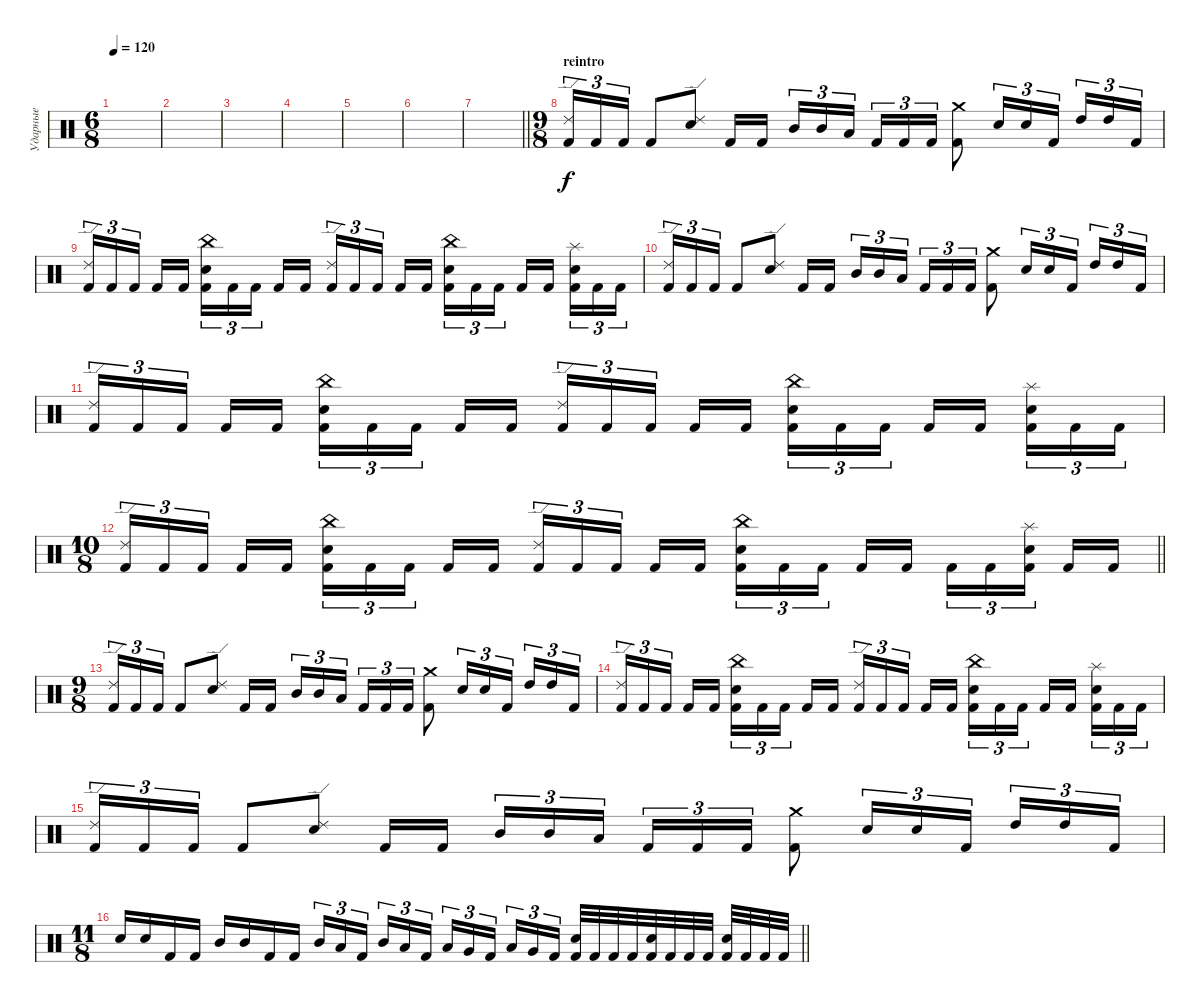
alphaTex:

\track ("Ударные" "Ударные") {instrument percussion}
\staff {score}
\articulation defaults
\ts (6 8)
\tempo 120
\clef neutral
\ks c
|
|
|
|
|
|
\barLineRight lightlight
|
\ts (9 8)
\section ("" "reintro")
("Ride (edge) 2" "Kick (hit) 2").16{tu (3 2)} "Kick (hit) 2".16{tu (3 2)} "Kick (hit) 2".16{tu (3 2)} "Kick (hit) 2".8 ("Ride (edge) 2" "Snare (hit) 2").8 "Kick (hit) 2".16 "Kick (hit) 2".16 "Mid Tom (hit)".16{tu (3 2)} "Mid Tom (hit)".16{tu (3 2)} "Low Tom (hit)".16{tu (3 2)} "Kick (hit) 2".16{tu (3 2)} "Kick (hit) 2".16{tu (3 2)} "Kick (hit) 2".16{tu (3 2)} ("Crash medium (hit)" "Kick (hit) 2").8 "Snare (hit) 2".16{tu (3 2)} "Snare (hit) 2".16{tu (3 2)} "Kick (hit) 2".16{tu (3 2)} "High Tom (hit)".16{tu (3 2)} "High Tom (hit)".16{tu (3 2)} "Kick (hit) 2".16{tu (3 2)} |
("Ride (edge) 2" "Kick (hit) 2").16{tu (3 2)} "Kick (hit) 2".16{tu (3 2)} "Kick (hit) 2".16{tu (3 2)} "Kick (hit) 2".16 "Kick (hit) 2".16 ("China (hit)" "Snare (hit) 2" "Kick (hit) 2").16{tu (3 2)} "Kick (hit) 2".16{tu (3 2)} "Kick (hit) 2".16{tu (3 2)} "Kick (hit) 2".16 "Kick (hit) 2".16 ("Ride (edge) 2" "Kick (hit) 2").16{tu (3 2)} "Kick (hit) 2".16{tu (3 2)} "Kick (hit) 2".16{tu (3 2)} "Kick (hit) 2".16 "Kick (hit) 2".16 ("China (hit)" "Snare (hit) 2" "Kick (hit) 2").16{tu (3 2)} "Kick (hit) 2".16{tu (3 2)} "Kick (hit) 2".16{tu (3 2)} "Kick (hit) 2".16 "Kick (hit) 2".16 ("Splash (hit)" "Snare (hit) 2" "Kick (hit) 2").16{tu (3 2)} "Kick (hit) 2".16{tu (3 2)} "Kick (hit) 2".16{tu (3 2)} |
("Ride (edge) 2" "Kick (hit) 2").16{tu (3 2)} "Kick (hit) 2".16{tu (3 2)} "Kick (hit) 2".16{tu (3 2)} "Kick (hit) 2".8 ("Ride (edge) 2" "Snare (hit) 2").8 "Kick (hit) 2".16 "Kick (hit) 2".16 "Mid Tom (hit)".16{tu (3 2)} "Mid Tom (hit)".16{tu (3 2)} "Low Tom (hit)".16{tu (3 2)} "Kick (hit) 2".16{tu (3 2)} "Kick (hit) 2".16{tu (3 2)} "Kick (hit) 2".16{tu (3 2)} ("Crash medium (hit)" "Kick (hit) 2").8 "Snare (hit) 2".16{tu (3 2)} "Snare (hit) 2".16{tu (3 2)} "Kick (hit) 2".16{tu (3 2)} "High Tom (hit)".16{tu (3 2)} "High Tom (hit)".16{tu (3 2)} "Kick (hit) 2".16{tu (3 2)} |
("Ride (edge) 2" "Kick (hit) 2").16{tu (3 2)} "Kick (hit) 2".16{tu (3 2)} "Kick (hit) 2".16{tu (3 2)} "Kick (hit) 2".16 "Kick (hit) 2".16 ("China (hit)" "Snare (hit) 2" "Kick (hit) 2").16{tu (3 2)} "Kick (hit) 2".16{tu (3 2)} "Kick (hit) 2".16{tu (3 2)} "Kick (hit) 2".16 "Kick (hit) 2".16 ("Ride (edge) 2" "Kick (hit) 2").16{tu (3 2)} "Kick (hit) 2".16{tu (3 2)} "Kick (hit) 2".16{tu (3 2)} "Kick (hit) 2".16 "Kick (hit) 2".16 ("China (hit)" "Snare (hit) 2" "Kick (hit) 2").16{tu (3 2)} "Kick (hit) 2".16{tu (3 2)} "Kick (hit) 2".16{tu (3 2)} "Kick (hit) 2".16 "Kick (hit) 2".16 ("Splash (hit)" "Snare (hit) 2" "Kick (hit) 2").16{tu (3 2)} "Kick (hit) 2".16{tu (3 2)} "Kick (hit) 2".16{tu (3 2)} |
\ts (10 8)
\barLineRight lightlight
("Ride (edge) 2" "Kick (hit) 2").16{tu (3 2)} "Kick (hit) 2".16{tu (3 2)} "Kick (hit) 2".16{tu (3 2)} "Kick (hit) 2".16 "Kick (hit) 2".16 ("China (hit)" "Snare (hit) 2" "Kick (hit) 2").16{tu (3 2)} "Kick (hit) 2".16{tu (3 2)} "Kick (hit) 2".16{tu (3 2)} "Kick (hit) 2".16 "Kick (hit) 2".16 ("Ride (edge) 2" "Kick (hit) 2").16{tu (3 2)} "Kick (hit) 2".16{tu (3 2)} "Kick (hit) 2".16{tu (3 2)} "Kick (hit) 2".16 "Kick (hit) 2".16 ("China (hit)" "Snare (hit) 2" "Kick (hit) 2").16{tu (3 2)} "Kick (hit) 2".16{tu (3 2)} "Kick (hit) 2".16{tu (3 2)} "Kick (hit) 2".16 "Kick (hit) 2".16 "Kick (hit) 2".16{tu (3 2)} "Kick (hit) 2".16{tu (3 2)} ("Splash (hit)" "Snare (hit) 2" "Kick (hit) 2").16{tu (3 2)} "Kick (hit) 2".16 "Kick (hit) 2".16 |
\ts (9 8)
("Ride (edge) 2" "Kick (hit) 2").16{tu (3 2)} "Kick (hit) 2".16{tu (3 2)} "Kick (hit) 2".16{tu (3 2)} "Kick (hit) 2".8 ("Ride (edge) 2" "Snare (hit) 2").8 "Kick (hit) 2".16 "Kick (hit) 2".16 "Mid Tom (hit)".16{tu (3 2)} "Mid Tom (hit)".16{tu (3 2)} "Low Tom (hit)".16{tu (3 2)} "Kick (hit) 2".16{tu (3 2)} "Kick (hit) 2".16{tu (3 2)} "Kick (hit) 2".16{tu (3 2)} ("Crash medium (hit)" "Kick (hit) 2").8 "Snare (hit) 2".16{tu (3 2)} "Snare (hit) 2".16{tu (3 2)} "Kick (hit) 2".16{tu (3 2)} "High Tom (hit)".16{tu (3 2)} "High Tom (hit)".16{tu (3 2)} "Kick (hit) 2".16{tu (3 2)} |
("Ride (edge) 2" "Kick (hit) 2").16{tu (3 2)} "Kick (hit) 2".16{tu (3 2)} "Kick (hit) 2".16{tu (3 2)} "Kick (hit) 2".16 "Kick (hit) 2".16 ("China (hit)" "Snare (hit) 2" "Kick (hit) 2").16{tu (3 2)} "Kick (hit) 2".16{tu (3 2)} "Kick (hit) 2".16{tu (3 2)} "Kick (hit) 2".16 "Kick (hit) 2".16 ("Ride (edge) 2" "Kick (hit) 2").16{tu (3 2)} "Kick (hit) 2".16{tu (3 2)} "Kick (hit) 2".16{tu (3 2)} "Kick (hit) 2".16 "Kick (hit) 2".16 ("China (hit)" "Snare (hit) 2" "Kick (hit) 2").16{tu (3 2)} "Kick (hit) 2".16{tu (3 2)} "Kick (hit) 2".16{tu (3 2)} "Kick (hit) 2".16 "Kick (hit) 2".16 ("Splash (hit)" "Snare (hit) 2" "Kick (hit) 2").16{tu (3 2)} "Kick (hit) 2".16{tu (3 2)} "Kick (hit) 2".16{tu (3 2)} |
("Ride (edge) 2" "Kick (hit) 2").16{tu (3 2)} "Kick (hit) 2".16{tu (3 2)} "Kick (hit) 2".16{tu (3 2)} "Kick (hit) 2".8 ("Ride (edge) 2" "Snare (hit) 2").8 "Kick (hit) 2".16 "Kick (hit) 2".16 "Mid Tom (hit)".16{tu (3 2)} "Mid Tom (hit)".16{tu (3 2)} "Low Tom (hit)".16{tu (3 2)} "Kick (hit) 2".16{tu (3 2)} "Kick (hit) 2".16{tu (3 2)} "Kick (hit) 2".16{tu (3 2)} ("Crash medium (hit)" "Kick (hit) 2").8 "Snare (hit) 2".16{tu (3 2)} "Snare (hit) 2".16{tu (3 2)} "Kick (hit) 2".16{tu (3 2)} "High Tom (hit)".16{tu (3 2)} "High Tom (hit)".16{tu (3 2)} "Kick (hit) 2".16{tu (3 2)} |
\ts (11 8)
\barLineRight lightlight "Snare (hit) 2".16 "Snare (hit) 2".16 "Kick (hit) 2".16 "Kick (hit) 2".16 "Mid Tom (hit)".16 "Mid Tom (hit)".16 "Kick (hit) 2".16 "Kick (hit) 2".16 "Mid Tom (hit)".16{tu (3 2)} "Low Tom (hit)".16{tu (3 2)} "Kick (hit) 2".16{tu (3 2)} "Mid Tom (hit)".16{tu (3 2)} "Low Tom (hit)".16{tu (3 2)} "Kick (hit) 2".16{tu (3 2)} "Low Tom (hit)".16{tu (3 2)} "Very Low Tom (hit)".16{tu (3 2)} "Kick (hit) 2".16{tu (3 2)} "Low Tom (hit)".16{tu (3 2)} "Very Low Tom (hit)".16{tu (3 2)} "Kick (hit) 2".16{tu (3 2)}
("Snare (hit) 2" "Kick (hit) 2").32 "Kick (hit) 2".32 "Kick (hit) 2".32 "Kick (hit) 2".32 ("Snare (hit) 2" "Kick (hit) 2").32 "Kick (hit) 2".32 "Kick (hit) 2".32 "Kick (hit) 2".32 ("Snare (hit) 2" "Kick (hit) 2").32 "Kick (hit) 2".32 "Kick (hit) 2".32 "Kick (hit) 2".32
